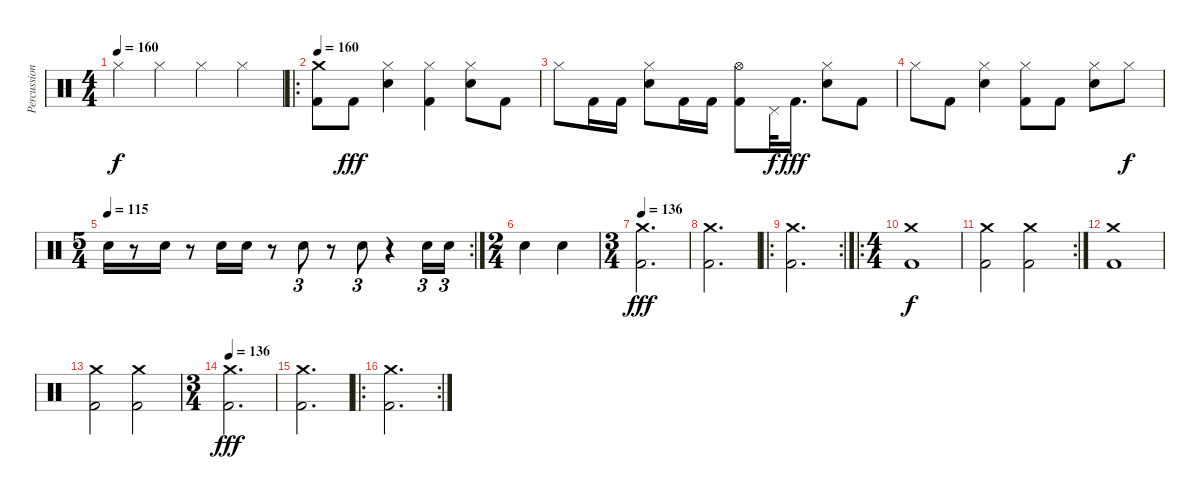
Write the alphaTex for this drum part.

\track ("Percussion" "Percussion") {instrument percussion}
\staff {score}
\articulation defaults
\ts (4 4)
\tempo 160
\clef neutral
\ks c "Hi-Hat (closed)".4{dy f} "Hi-Hat (closed)".4 "Hi-Hat (closed)".4 "Hi-Hat (closed)".4
|
\ro
\tempo 160
("Kick (hit) 2" "Crash medium (hit)").8 "Kick (hit) 2".8{dy fff} ("Electric Snare (hit)" "Hi-Hat (closed)").4 ("Kick (hit) 2" "Hi-Hat (closed)").4 ("Electric Snare (hit)" "Hi-Hat (closed)").8 "Kick (hit) 2".8 |
"Hi-Hat (closed)".8 "Kick (hit) 2".16 "Kick (hit) 2".16 ("Electric Snare (hit)" "Hi-Hat (closed)").8 "Kick (hit) 2".16 "Kick (hit) 2".16 ("Kick (hit) 2" "Hi-Hat (open)").8 "Pedal Hi-Hat (hit)".32{dy f} "Kick (hit) 2".16{d dy fff} ("Electric Snare (hit)" "Hi-Hat (closed)").8 "Kick (hit) 2".8 |
"Hi-Hat (closed)".8 "Kick (hit) 2".8 ("Electric Snare (hit)" "Hi-Hat (closed)").4 ("Kick (hit) 2" "Hi-Hat (closed)").8 "Kick (hit) 2".8 ("Electric Snare (hit)" "Hi-Hat (closed)").8 "Hi-Hat (closed)".8{dy f} |
\rc 2
\ts (5 4)
\tempo (115)
"Electric Snare (hit)".16 r.8 "Electric Snare (hit)".16 r.8 "Electric Snare (hit)".16 "Electric Snare (hit)".16 r.8 "Electric Snare (hit)".8{tu (3 2)} r.8 "Electric Snare (hit)".8{tu (3 2)} r.4 "Electric Snare (hit)".16{tu (3 2)} "Electric Snare (hit)".16{tu (3 2)} |
\ts (2 4)
"Electric Snare (hit)".4 "Electric Snare (hit)".4 |
\ts (3 4)
\tempo 136
("Kick (hit) 2" "Crash medium (hit)").2{d dy fff} |
("Kick (hit) 2" "Crash medium (hit)").2{d} |
\ro
\rc 2
("Kick (hit) 2" "Crash medium (hit)").2{d} |
\ro
\ts (4 4)
("Kick (hit) 2" "Crash medium (hit)").1{dy f} |
\rc 2
("Kick (hit) 2" "Crash medium (hit)").2 ("Kick (hit) 2" "Crash medium (hit)").2 |
("Kick (hit) 2" "Crash medium (hit)").1 |
("Kick (hit) 2" "Crash medium (hit)").2 ("Kick (hit) 2" "Crash medium (hit)").2 |
\ts (3 4)
\tempo 136
("Kick (hit) 2" "Crash medium (hit)").2{d dy fff} |
("Kick (hit) 2" "Crash medium (hit)").2{d} |
\ro
\rc 2
("Kick (hit) 2" "Crash medium (hit)").2{d}
